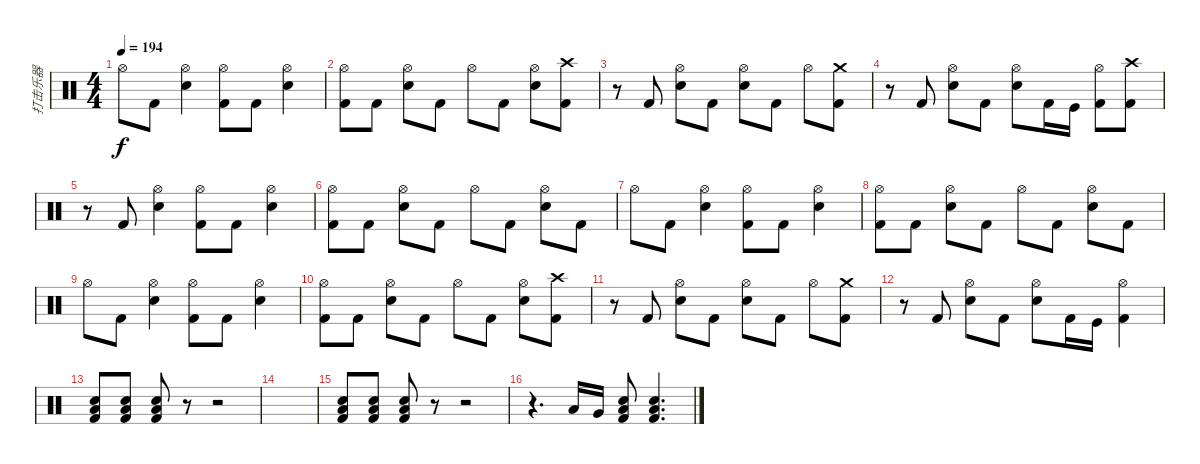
\track ("打击乐器" "打击乐器") {instrument percussion}
\staff {score}
\articulation defaults
\ts (4 4)
\tempo 194
\clef neutral
\ks c "Hi-Hat (open)".8{dy f} "Kick (hit) 2".8
("Hi-Hat (open)" "Electric Snare (hit)").4 ("Hi-Hat (open)" "Kick (hit) 2").8 "Kick (hit) 2".8 ("Hi-Hat (open)" "Electric Snare (hit)").4 |
("Hi-Hat (open)" "Kick (hit) 2").8 "Kick (hit) 2".8 ("Hi-Hat (open)" "Electric Snare (hit)").8 "Kick (hit) 2".8 "Hi-Hat (open)".8 "Kick (hit) 2".8 ("Hi-Hat (open)" "Electric Snare (hit)").8 ("Crash high (hit)" "Kick (hit) 2").8 |
r.8 "Kick (hit) 2".8 ("Hi-Hat (open)" "Electric Snare (hit)").8 "Kick (hit) 2".8 ("Hi-Hat (open)" "Electric Snare (hit)").8 "Kick (hit) 2".8 "Hi-Hat (open)".8 ("Crash medium (hit)" "Kick (hit) 2").8 |
r.8 "Kick (hit) 2".8 ("Hi-Hat (open)" "Electric Snare (hit)").8 "Kick (hit) 2".8 ("Hi-Hat (open)" "Electric Snare (hit)").8 "Kick (hit) 2".16 "Kick (hit)".16 ("Hi-Hat (open)" "Kick (hit) 2").8 ("Crash high (hit)" "Kick (hit) 2").8 |
r.8 "Kick (hit) 2".8 ("Hi-Hat (open)" "Electric Snare (hit)").4 ("Hi-Hat (open)" "Kick (hit) 2").8 "Kick (hit) 2".8 ("Hi-Hat (open)" "Electric Snare (hit)").4 |
("Hi-Hat (open)" "Kick (hit) 2").8 "Kick (hit) 2".8 ("Hi-Hat (open)" "Electric Snare (hit)").8 "Kick (hit) 2".8 "Hi-Hat (open)".8 "Kick (hit) 2".8 ("Hi-Hat (open)" "Electric Snare (hit)").8 "Kick (hit) 2".8 |
"Hi-Hat (open)".8 "Kick (hit) 2".8 ("Hi-Hat (open)" "Electric Snare (hit)").4 ("Hi-Hat (open)" "Kick (hit) 2").8 "Kick (hit) 2".8 ("Hi-Hat (open)" "Electric Snare (hit)").4 |
("Hi-Hat (open)" "Kick (hit) 2").8 "Kick (hit) 2".8 ("Hi-Hat (open)" "Electric Snare (hit)").8 "Kick (hit) 2".8 "Hi-Hat (open)".8 "Kick (hit) 2".8 ("Hi-Hat (open)" "Electric Snare (hit)").8 "Kick (hit) 2".8 |
"Hi-Hat (open)".8 "Kick (hit) 2".8 ("Hi-Hat (open)" "Electric Snare (hit)").4 ("Hi-Hat (open)" "Kick (hit) 2").8 "Kick (hit) 2".8 ("Hi-Hat (open)" "Electric Snare (hit)").4 |
("Hi-Hat (open)" "Kick (hit) 2").8 "Kick (hit) 2".8 ("Hi-Hat (open)" "Electric Snare (hit)").8 "Kick (hit) 2".8 "Hi-Hat (open)".8 "Kick (hit) 2".8 ("Hi-Hat (open)" "Electric Snare (hit)").8 ("Crash high (hit)" "Kick (hit) 2").8 |
r.8 "Kick (hit) 2".8 ("Hi-Hat (open)" "Electric Snare (hit)").8 "Kick (hit) 2".8 ("Hi-Hat (open)" "Electric Snare (hit)").8 "Kick (hit) 2".8 "Hi-Hat (open)".8 ("Crash medium (hit)" "Kick (hit) 2").8 |
r.8 "Kick (hit) 2".8 ("Hi-Hat (open)" "Electric Snare (hit)").8 "Kick (hit) 2".8 ("Hi-Hat (open)" "Electric Snare (hit)").8 "Kick (hit) 2".16 "Kick (hit)".16 ("Hi-Hat (open)" "Kick (hit) 2").4 |
("Electric Snare (hit)" "Low Floor Tom (hit)" "Kick (hit) 2").8 ("Electric Snare (hit)" "Low Floor Tom (hit)" "Kick (hit) 2").8 ("Electric Snare (hit)" "Low Floor Tom (hit)" "Kick (hit) 2").8 r.8 r.2 |
|
("Electric Snare (hit)" "Low Floor Tom (hit)" "Kick (hit) 2").8 ("Electric Snare (hit)" "Low Floor Tom (hit)" "Kick (hit) 2").8 ("Electric Snare (hit)" "Low Floor Tom (hit)" "Kick (hit) 2").8 r.8 r.2 |
r.4{d} "Low Tom (hit)".16 "Very Low Tom (hit)".16 ("Electric Snare (hit)" "Low Floor Tom (hit)" "Kick (hit) 2").8 ("Electric Snare (hit)" "Low Floor Tom (hit)" "Kick (hit) 2").4{d}
